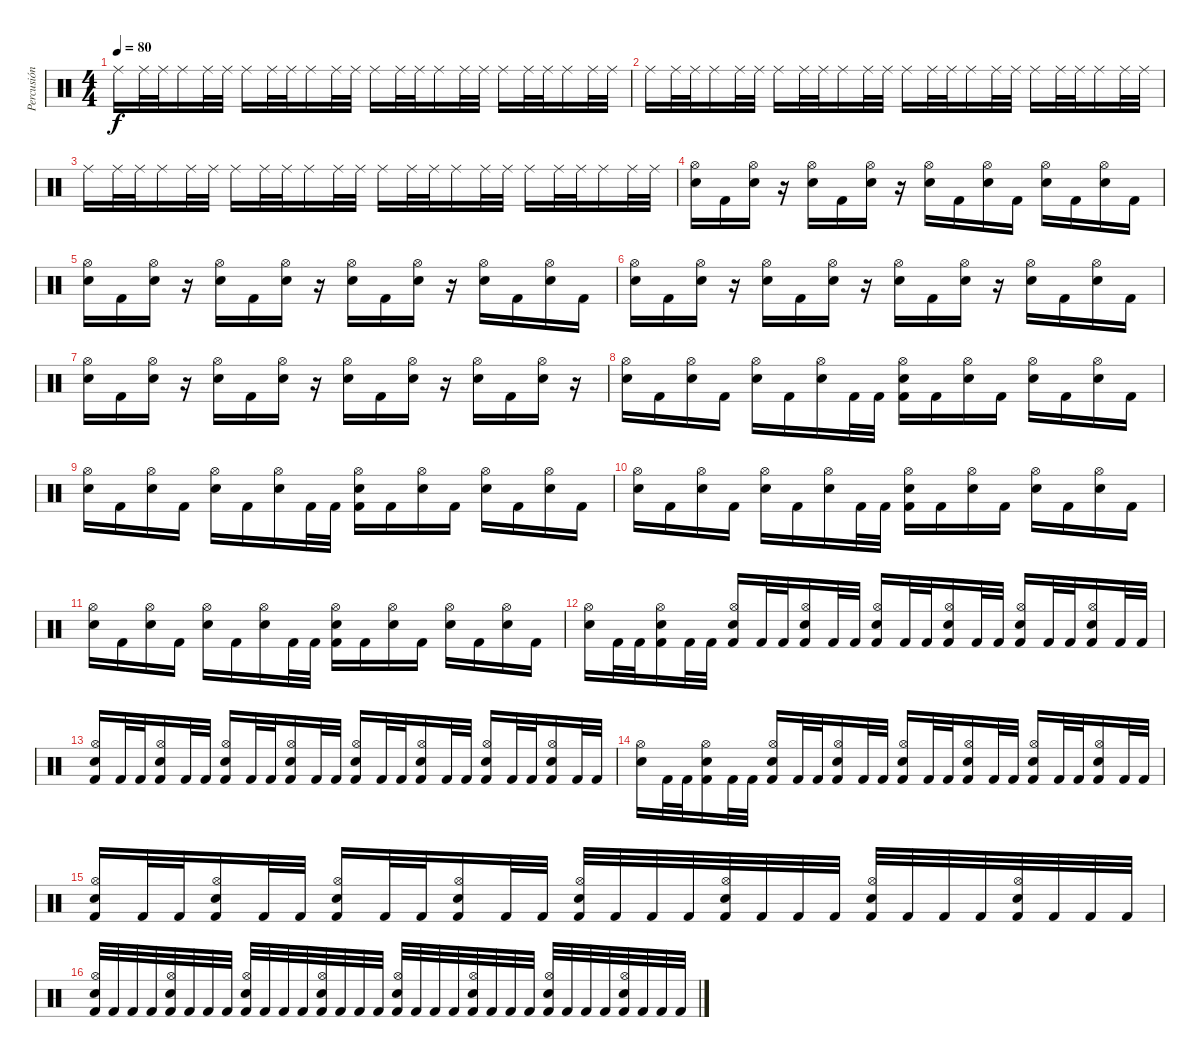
\track ("Percusión" "Percusión") {instrument percussion}
\staff {score}
\articulation defaults
\ts (4 4)
\tempo 80
\clef neutral
\ks c "Ride (middle)".16{dy f} "Ride (middle)".32 "Ride (middle)".32 "Ride (middle)".16 "Ride (middle)".32 "Ride (middle)".32 "Ride (middle)".16 "Ride (middle)".32 "Ride (middle)".32 "Ride (middle)".16 "Ride (middle)".32 "Ride (middle)".32 "Ride (middle)".16 "Ride (middle)".32 "Ride (middle)".32 "Ride (middle)".16 "Ride (middle)".32 "Ride (middle)".32 "Ride (middle)".16 "Ride (middle)".32 "Ride (middle)".32 "Ride (middle)".16 "Ride (middle)".32 "Ride (middle)".32
|
"Ride (middle)".16 "Ride (middle)".32 "Ride (middle)".32 "Ride (middle)".16 "Ride (middle)".32 "Ride (middle)".32 "Ride (middle)".16 "Ride (middle)".32 "Ride (middle)".32 "Ride (middle)".16 "Ride (middle)".32 "Ride (middle)".32 "Ride (middle)".16 "Ride (middle)".32 "Ride (middle)".32 "Ride (middle)".16 "Ride (middle)".32 "Ride (middle)".32 "Ride (middle)".16 "Ride (middle)".32 "Ride (middle)".32 "Ride (middle)".16 "Ride (middle)".32 "Ride (middle)".32 |
"Ride (middle)".16 "Ride (middle)".32 "Ride (middle)".32 "Ride (middle)".16 "Ride (middle)".32 "Ride (middle)".32 "Ride (middle)".16 "Ride (middle)".32 "Ride (middle)".32 "Ride (middle)".16 "Ride (middle)".32 "Ride (middle)".32 "Ride (middle)".16 "Ride (middle)".32 "Ride (middle)".32 "Ride (middle)".16 "Ride (middle)".32 "Ride (middle)".32 "Ride (middle)".16 "Ride (middle)".32 "Ride (middle)".32 "Ride (middle)".16 "Ride (middle)".32 "Ride (middle)".32 |
("Electric Snare (hit)" "Hi-Hat (open)").16 "Kick (hit) 2".16 ("Electric Snare (hit)" "Hi-Hat (open)").16 r.16 ("Electric Snare (hit)" "Hi-Hat (open)").16 "Kick (hit) 2".16 ("Electric Snare (hit)" "Hi-Hat (open)").16 r.16 ("Electric Snare (hit)" "Hi-Hat (open)").16 "Kick (hit) 2".16 ("Electric Snare (hit)" "Hi-Hat (open)").16 "Kick (hit) 2".16 ("Electric Snare (hit)" "Hi-Hat (open)").16 "Kick (hit) 2".16 ("Electric Snare (hit)" "Hi-Hat (open)").16 "Kick (hit) 2".16 |
("Electric Snare (hit)" "Hi-Hat (open)").16 "Kick (hit) 2".16 ("Electric Snare (hit)" "Hi-Hat (open)").16 r.16 ("Electric Snare (hit)" "Hi-Hat (open)").16 "Kick (hit) 2".16 ("Electric Snare (hit)" "Hi-Hat (open)").16 r.16 ("Electric Snare (hit)" "Hi-Hat (open)").16 "Kick (hit) 2".16 ("Electric Snare (hit)" "Hi-Hat (open)").16 r.16 ("Electric Snare (hit)" "Hi-Hat (open)").16 "Kick (hit) 2".16 ("Electric Snare (hit)" "Hi-Hat (open)").16 "Kick (hit) 2".16 |
("Electric Snare (hit)" "Hi-Hat (open)").16 "Kick (hit) 2".16 ("Electric Snare (hit)" "Hi-Hat (open)").16 r.16 ("Electric Snare (hit)" "Hi-Hat (open)").16 "Kick (hit) 2".16 ("Electric Snare (hit)" "Hi-Hat (open)").16 r.16 ("Electric Snare (hit)" "Hi-Hat (open)").16 "Kick (hit) 2".16 ("Electric Snare (hit)" "Hi-Hat (open)").16 r.16 ("Electric Snare (hit)" "Hi-Hat (open)").16 "Kick (hit) 2".16 ("Electric Snare (hit)" "Hi-Hat (open)").16 "Kick (hit) 2".16 |
("Electric Snare (hit)" "Hi-Hat (open)").16 "Kick (hit) 2".16 ("Electric Snare (hit)" "Hi-Hat (open)").16 r.16 ("Electric Snare (hit)" "Hi-Hat (open)").16 "Kick (hit) 2".16 ("Electric Snare (hit)" "Hi-Hat (open)").16 r.16 ("Electric Snare (hit)" "Hi-Hat (open)").16 "Kick (hit) 2".16 ("Electric Snare (hit)" "Hi-Hat (open)").16 r.16 ("Electric Snare (hit)" "Hi-Hat (open)").16 "Kick (hit) 2".16 ("Electric Snare (hit)" "Hi-Hat (open)").16 r.16 |
("Electric Snare (hit)" "Hi-Hat (open)").16 "Kick (hit) 2".16 ("Electric Snare (hit)" "Hi-Hat (open)").16 "Kick (hit) 2".16 ("Electric Snare (hit)" "Hi-Hat (open)").16 "Kick (hit) 2".16 ("Electric Snare (hit)" "Hi-Hat (open)").16 "Kick (hit) 2".32 "Kick (hit) 2".32 ("Electric Snare (hit)" "Kick (hit) 2" "Hi-Hat (open)").16 "Kick (hit) 2".16 ("Electric Snare (hit)" "Hi-Hat (open)").16 "Kick (hit) 2".16 ("Electric Snare (hit)" "Hi-Hat (open)").16 "Kick (hit) 2".16 ("Electric Snare (hit)" "Hi-Hat (open)").16 "Kick (hit) 2".16 |
("Electric Snare (hit)" "Hi-Hat (open)").16 "Kick (hit) 2".16 ("Electric Snare (hit)" "Hi-Hat (open)").16 "Kick (hit) 2".16 ("Electric Snare (hit)" "Hi-Hat (open)").16 "Kick (hit) 2".16 ("Electric Snare (hit)" "Hi-Hat (open)").16 "Kick (hit) 2".32 "Kick (hit) 2".32 ("Electric Snare (hit)" "Kick (hit) 2" "Hi-Hat (open)").16 "Kick (hit) 2".16 ("Electric Snare (hit)" "Hi-Hat (open)").16 "Kick (hit) 2".16 ("Electric Snare (hit)" "Hi-Hat (open)").16 "Kick (hit) 2".16 ("Electric Snare (hit)" "Hi-Hat (open)").16 "Kick (hit) 2".16 |
("Electric Snare (hit)" "Hi-Hat (open)").16 "Kick (hit) 2".16 ("Electric Snare (hit)" "Hi-Hat (open)").16 "Kick (hit) 2".16 ("Electric Snare (hit)" "Hi-Hat (open)").16 "Kick (hit) 2".16 ("Electric Snare (hit)" "Hi-Hat (open)").16 "Kick (hit) 2".32 "Kick (hit) 2".32 ("Electric Snare (hit)" "Kick (hit) 2" "Hi-Hat (open)").16 "Kick (hit) 2".16 ("Electric Snare (hit)" "Hi-Hat (open)").16 "Kick (hit) 2".16 ("Electric Snare (hit)" "Hi-Hat (open)").16 "Kick (hit) 2".16 ("Electric Snare (hit)" "Hi-Hat (open)").16 "Kick (hit) 2".16 |
("Electric Snare (hit)" "Hi-Hat (open)").16 "Kick (hit) 2".16 ("Electric Snare (hit)" "Hi-Hat (open)").16 "Kick (hit) 2".16 ("Electric Snare (hit)" "Hi-Hat (open)").16 "Kick (hit) 2".16 ("Electric Snare (hit)" "Hi-Hat (open)").16 "Kick (hit) 2".32 "Kick (hit) 2".32 ("Electric Snare (hit)" "Kick (hit) 2" "Hi-Hat (open)").16 "Kick (hit) 2".16 ("Electric Snare (hit)" "Hi-Hat (open)").16 "Kick (hit) 2".16 ("Electric Snare (hit)" "Hi-Hat (open)").16 "Kick (hit) 2".16 ("Electric Snare (hit)" "Hi-Hat (open)").16 "Kick (hit) 2".16 |
("Electric Snare (hit)" "Hi-Hat (open)").16 "Kick (hit) 2".32 "Kick (hit) 2".32 ("Electric Snare (hit)" "Kick (hit) 2" "Hi-Hat (open)").16 "Kick (hit) 2".32 "Kick (hit) 2".32 ("Electric Snare (hit)" "Kick (hit) 2" "Hi-Hat (open)").16 "Kick (hit) 2".32 "Kick (hit) 2".32 ("Electric Snare (hit)" "Kick (hit) 2" "Hi-Hat (open)").16 "Kick (hit) 2".32 "Kick (hit) 2".32 ("Electric Snare (hit)" "Kick (hit) 2" "Hi-Hat (open)").16 "Kick (hit) 2".32 "Kick (hit) 2".32 ("Electric Snare (hit)" "Kick (hit) 2" "Hi-Hat (open)").16 "Kick (hit) 2".32 "Kick (hit) 2".32 ("Electric Snare (hit)" "Kick (hit) 2" "Hi-Hat (open)").16 "Kick (hit) 2".32 "Kick (hit) 2".32 ("Electric Snare (hit)" "Kick (hit) 2" "Hi-Hat (open)").16 "Kick (hit) 2".32 "Kick (hit) 2".32 |
("Electric Snare (hit)" "Kick (hit) 2" "Hi-Hat (open)").16 "Kick (hit) 2".32 "Kick (hit) 2".32 ("Electric Snare (hit)" "Kick (hit) 2" "Hi-Hat (open)").16 "Kick (hit) 2".32 "Kick (hit) 2".32 ("Electric Snare (hit)" "Kick (hit) 2" "Hi-Hat (open)").16 "Kick (hit) 2".32 "Kick (hit) 2".32 ("Electric Snare (hit)" "Kick (hit) 2" "Hi-Hat (open)").16 "Kick (hit) 2".32 "Kick (hit) 2".32 ("Electric Snare (hit)" "Kick (hit) 2" "Hi-Hat (open)").16 "Kick (hit) 2".32 "Kick (hit) 2".32 ("Electric Snare (hit)" "Kick (hit) 2" "Hi-Hat (open)").16 "Kick (hit) 2".32 "Kick (hit) 2".32 ("Electric Snare (hit)" "Kick (hit) 2" "Hi-Hat (open)").16 "Kick (hit) 2".32 "Kick (hit) 2".32 ("Electric Snare (hit)" "Kick (hit) 2" "Hi-Hat (open)").16 "Kick (hit) 2".32 "Kick (hit) 2".32 |
("Electric Snare (hit)" "Hi-Hat (open)").16 "Kick (hit) 2".32 "Kick (hit) 2".32 ("Electric Snare (hit)" "Kick (hit) 2" "Hi-Hat (open)").16 "Kick (hit) 2".32 "Kick (hit) 2".32 ("Electric Snare (hit)" "Kick (hit) 2" "Hi-Hat (open)").16 "Kick (hit) 2".32 "Kick (hit) 2".32 ("Electric Snare (hit)" "Kick (hit) 2" "Hi-Hat (open)").16 "Kick (hit) 2".32 "Kick (hit) 2".32 ("Electric Snare (hit)" "Kick (hit) 2" "Hi-Hat (open)").16 "Kick (hit) 2".32 "Kick (hit) 2".32 ("Electric Snare (hit)" "Kick (hit) 2" "Hi-Hat (open)").16 "Kick (hit) 2".32 "Kick (hit) 2".32 ("Electric Snare (hit)" "Kick (hit) 2" "Hi-Hat (open)").16 "Kick (hit) 2".32 "Kick (hit) 2".32 ("Electric Snare (hit)" "Kick (hit) 2" "Hi-Hat (open)").16 "Kick (hit) 2".32 "Kick (hit) 2".32 |
("Electric Snare (hit)" "Kick (hit) 2" "Hi-Hat (open)").16 "Kick (hit) 2".32 "Kick (hit) 2".32 ("Electric Snare (hit)" "Kick (hit) 2" "Hi-Hat (open)").16 "Kick (hit) 2".32 "Kick (hit) 2".32 ("Electric Snare (hit)" "Kick (hit) 2" "Hi-Hat (open)").16 "Kick (hit) 2".32 "Kick (hit) 2".32 ("Electric Snare (hit)" "Kick (hit) 2" "Hi-Hat (open)").16 "Kick (hit) 2".32 "Kick (hit) 2".32 ("Electric Snare (hit)" "Kick (hit) 2" "Hi-Hat (open)").32 "Kick (hit) 2".32 "Kick (hit) 2".32 "Kick (hit) 2".32 ("Electric Snare (hit)" "Kick (hit) 2" "Hi-Hat (open)").32 "Kick (hit) 2".32 "Kick (hit) 2".32 "Kick (hit) 2".32 ("Electric Snare (hit)" "Kick (hit) 2" "Hi-Hat (open)").32 "Kick (hit) 2".32 "Kick (hit) 2".32 "Kick (hit) 2".32 ("Electric Snare (hit)" "Kick (hit) 2" "Hi-Hat (open)").32 "Kick (hit) 2".32 "Kick (hit) 2".32 "Kick (hit) 2".32 |
("Kick (hit) 2" "Electric Snare (hit)" "Hi-Hat (open)").32 "Kick (hit) 2".32 "Kick (hit) 2".32 "Kick (hit) 2".32 ("Kick (hit) 2" "Electric Snare (hit)" "Hi-Hat (open)").32 "Kick (hit) 2".32 "Kick (hit) 2".32 "Kick (hit) 2".32 ("Kick (hit) 2" "Electric Snare (hit)" "Hi-Hat (open)").32 "Kick (hit) 2".32 "Kick (hit) 2".32 "Kick (hit) 2".32 ("Kick (hit) 2" "Electric Snare (hit)" "Hi-Hat (open)").32 "Kick (hit) 2".32 "Kick (hit) 2".32 "Kick (hit) 2".32 ("Kick (hit) 2" "Electric Snare (hit)" "Hi-Hat (open)").32 "Kick (hit) 2".32 "Kick (hit) 2".32 "Kick (hit) 2".32 ("Kick (hit) 2" "Electric Snare (hit)" "Hi-Hat (open)").32 "Kick (hit) 2".32 "Kick (hit) 2".32 "Kick (hit) 2".32 ("Kick (hit) 2" "Electric Snare (hit)" "Hi-Hat (open)").32 "Kick (hit) 2".32 "Kick (hit) 2".32 "Kick (hit) 2".32 ("Kick (hit) 2" "Electric Snare (hit)" "Hi-Hat (open)").32 "Kick (hit) 2".32 "Kick (hit) 2".32 "Kick (hit) 2".32
